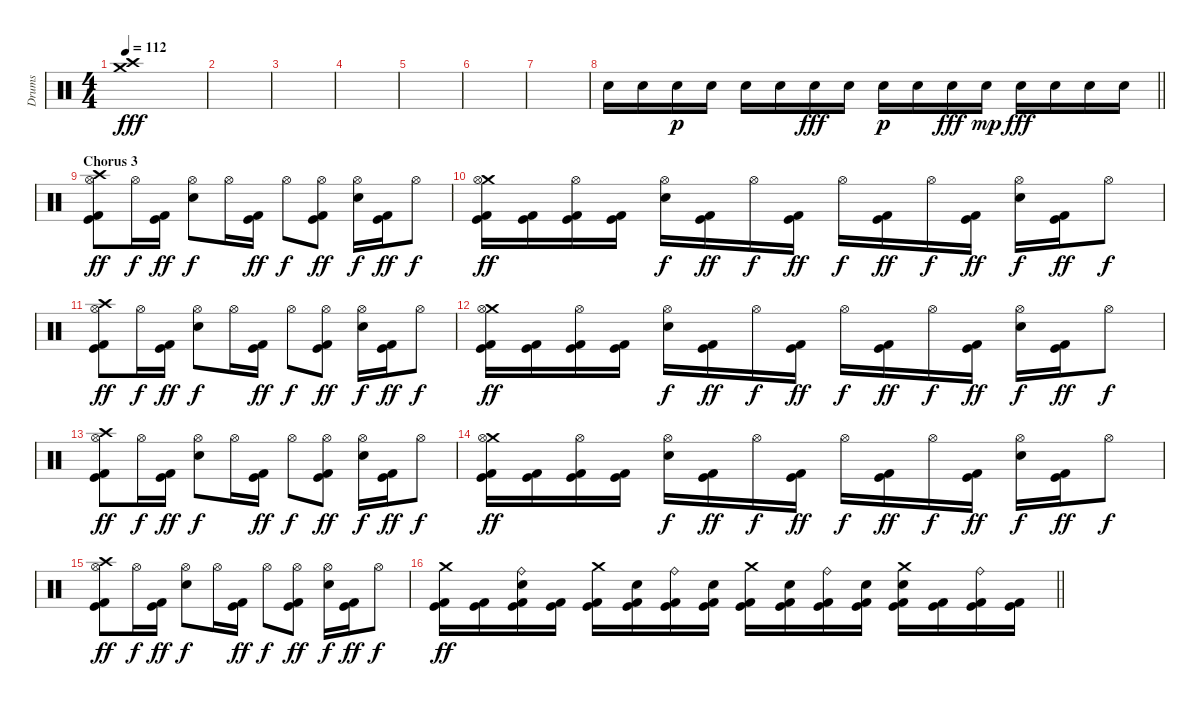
\track ("Drums" "Drums") {instrument percussion}
\staff {score}
\articulation defaults
\ts (4 4)
\tempo 112
\clef neutral
\ks c
("Crash medium (hit)" "Crash high (hit)").1{dy fff} |
|
|
|
|
|
|
\barLineRight lightlight "Snare (hit) 2".16 "Snare (hit) 2".16 "Snare (hit) 2".16{dy p} "Snare (hit) 2".16 "Snare (hit) 2".16 "Snare (hit) 2".16 "Snare (hit) 2".16{dy fff} "Snare (hit) 2".16 "Snare (hit) 2".16{dy p} "Snare (hit) 2".16 "Snare (hit) 2".16{dy fff} "Snare (hit) 2".16{dy mp} "Snare (hit) 2".16{dy fff} "Snare (hit) 2".16 "Snare (hit) 2".16 "Snare (hit) 2".16
|
\section ("" "Chorus 3")
("Crash high (hit)" "Hi-Hat (open)" "Kick (hit)" "Kick (hit) 2").8{dy ff} "Hi-Hat (open)".16{dy f} ("Kick (hit)" "Kick (hit) 2").16{dy ff} ("Hi-Hat (open)" "Snare (hit) 2").8{dy f} "Hi-Hat (open)".16 ("Kick (hit)" "Kick (hit) 2").16{dy ff} "Hi-Hat (open)".8{dy f} ("Hi-Hat (open)" "Kick (hit)" "Kick (hit) 2").8{dy ff} ("Hi-Hat (open)" "Snare (hit) 2").16{dy f} ("Kick (hit)" "Kick (hit) 2").16{dy ff} "Hi-Hat (open)".8{dy f} |
("Crash medium (hit)" "Hi-Hat (open)" "Kick (hit)" "Kick (hit) 2").16{dy ff} ("Kick (hit)" "Kick (hit) 2").16 ("Hi-Hat (open)" "Kick (hit)" "Kick (hit) 2").16 ("Kick (hit)" "Kick (hit) 2").16 ("Hi-Hat (open)" "Snare (hit) 2").16{dy f} ("Kick (hit)" "Kick (hit) 2").16{dy ff} "Hi-Hat (open)".16{dy f} ("Kick (hit)" "Kick (hit) 2").16{dy ff} "Hi-Hat (open)".16{dy f} ("Kick (hit)" "Kick (hit) 2").16{dy ff} "Hi-Hat (open)".16{dy f} ("Kick (hit)" "Kick (hit) 2").16{dy ff} ("Hi-Hat (open)" "Snare (hit) 2").16{dy f} ("Kick (hit)" "Kick (hit) 2").16{dy ff} "Hi-Hat (open)".8{dy f} |
("Crash high (hit)" "Hi-Hat (open)" "Kick (hit)" "Kick (hit) 2").8{dy ff} "Hi-Hat (open)".16{dy f} ("Kick (hit)" "Kick (hit) 2").16{dy ff} ("Hi-Hat (open)" "Snare (hit) 2").8{dy f} "Hi-Hat (open)".16 ("Kick (hit)" "Kick (hit) 2").16{dy ff} "Hi-Hat (open)".8{dy f} ("Hi-Hat (open)" "Kick (hit)" "Kick (hit) 2").8{dy ff} ("Hi-Hat (open)" "Snare (hit) 2").16{dy f} ("Kick (hit)" "Kick (hit) 2").16{dy ff} "Hi-Hat (open)".8{dy f} |
("Crash medium (hit)" "Hi-Hat (open)" "Kick (hit)" "Kick (hit) 2").16{dy ff} ("Kick (hit)" "Kick (hit) 2").16 ("Hi-Hat (open)" "Kick (hit)" "Kick (hit) 2").16 ("Kick (hit)" "Kick (hit) 2").16 ("Hi-Hat (open)" "Snare (hit) 2").16{dy f} ("Kick (hit)" "Kick (hit) 2").16{dy ff} "Hi-Hat (open)".16{dy f} ("Kick (hit)" "Kick (hit) 2").16{dy ff} "Hi-Hat (open)".16{dy f} ("Kick (hit)" "Kick (hit) 2").16{dy ff} "Hi-Hat (open)".16{dy f} ("Kick (hit)" "Kick (hit) 2").16{dy ff} ("Hi-Hat (open)" "Snare (hit) 2").16{dy f} ("Kick (hit)" "Kick (hit) 2").16{dy ff} "Hi-Hat (open)".8{dy f} |
("Crash high (hit)" "Hi-Hat (open)" "Kick (hit)" "Kick (hit) 2").8{dy ff} "Hi-Hat (open)".16{dy f} ("Kick (hit)" "Kick (hit) 2").16{dy ff} ("Hi-Hat (open)" "Snare (hit) 2").8{dy f} "Hi-Hat (open)".16 ("Kick (hit)" "Kick (hit) 2").16{dy ff} "Hi-Hat (open)".8{dy f} ("Hi-Hat (open)" "Kick (hit)" "Kick (hit) 2").8{dy ff} ("Hi-Hat (open)" "Snare (hit) 2").16{dy f} ("Kick (hit)" "Kick (hit) 2").16{dy ff} "Hi-Hat (open)".8{dy f} |
("Crash medium (hit)" "Hi-Hat (open)" "Kick (hit)" "Kick (hit) 2").16{dy ff} ("Kick (hit)" "Kick (hit) 2").16 ("Hi-Hat (open)" "Kick (hit)" "Kick (hit) 2").16 ("Kick (hit)" "Kick (hit) 2").16 ("Hi-Hat (open)" "Snare (hit) 2").16{dy f} ("Kick (hit)" "Kick (hit) 2").16{dy ff} "Hi-Hat (open)".16{dy f} ("Kick (hit)" "Kick (hit) 2").16{dy ff} "Hi-Hat (open)".16{dy f} ("Kick (hit)" "Kick (hit) 2").16{dy ff} "Hi-Hat (open)".16{dy f} ("Kick (hit)" "Kick (hit) 2").16{dy ff} ("Hi-Hat (open)" "Snare (hit) 2").16{dy f} ("Kick (hit)" "Kick (hit) 2").16{dy ff} "Hi-Hat (open)".8{dy f} |
("Crash high (hit)" "Hi-Hat (open)" "Kick (hit)" "Kick (hit) 2").8{dy ff} "Hi-Hat (open)".16{dy f} ("Kick (hit)" "Kick (hit) 2").16{dy ff} ("Hi-Hat (open)" "Snare (hit) 2").8{dy f} "Hi-Hat (open)".16 ("Kick (hit)" "Kick (hit) 2").16{dy ff} "Hi-Hat (open)".8{dy f} ("Hi-Hat (open)" "Kick (hit)" "Kick (hit) 2").8{dy ff} ("Hi-Hat (open)" "Snare (hit) 2").16{dy f} ("Kick (hit)" "Kick (hit) 2").16{dy ff} "Hi-Hat (open)".8{dy f} |
\barLineRight lightlight
("Crash medium (hit)" "Kick (hit)" "Kick (hit) 2").16{dy ff} ("Kick (hit)" "Kick (hit) 2").16 ("Ride (bell)" "Snare (hit) 2" "Kick (hit)" "Kick (hit) 2").16 ("Kick (hit)" "Kick (hit) 2").16 ("Crash medium (hit)" "Kick (hit)" "Kick (hit) 2").16 ("Snare (hit) 2" "Kick (hit)" "Kick (hit) 2").16 ("Ride (bell)" "Kick (hit)" "Kick (hit) 2").16 ("Snare (hit) 2" "Kick (hit)" "Kick (hit) 2").16 ("Crash medium (hit)" "Kick (hit)" "Kick (hit) 2").16 ("Snare (hit) 2" "Kick (hit)" "Kick (hit) 2").16 ("Ride (bell)" "Kick (hit)" "Kick (hit) 2").16 ("Snare (hit) 2" "Kick (hit)" "Kick (hit) 2").16 ("Crash medium (hit)" "Snare (hit) 2" "Kick (hit)" "Kick (hit) 2").16 ("Kick (hit)" "Kick (hit) 2").16 ("Ride (bell)" "Kick (hit)" "Kick (hit) 2").16 ("Kick (hit)" "Kick (hit) 2").16
